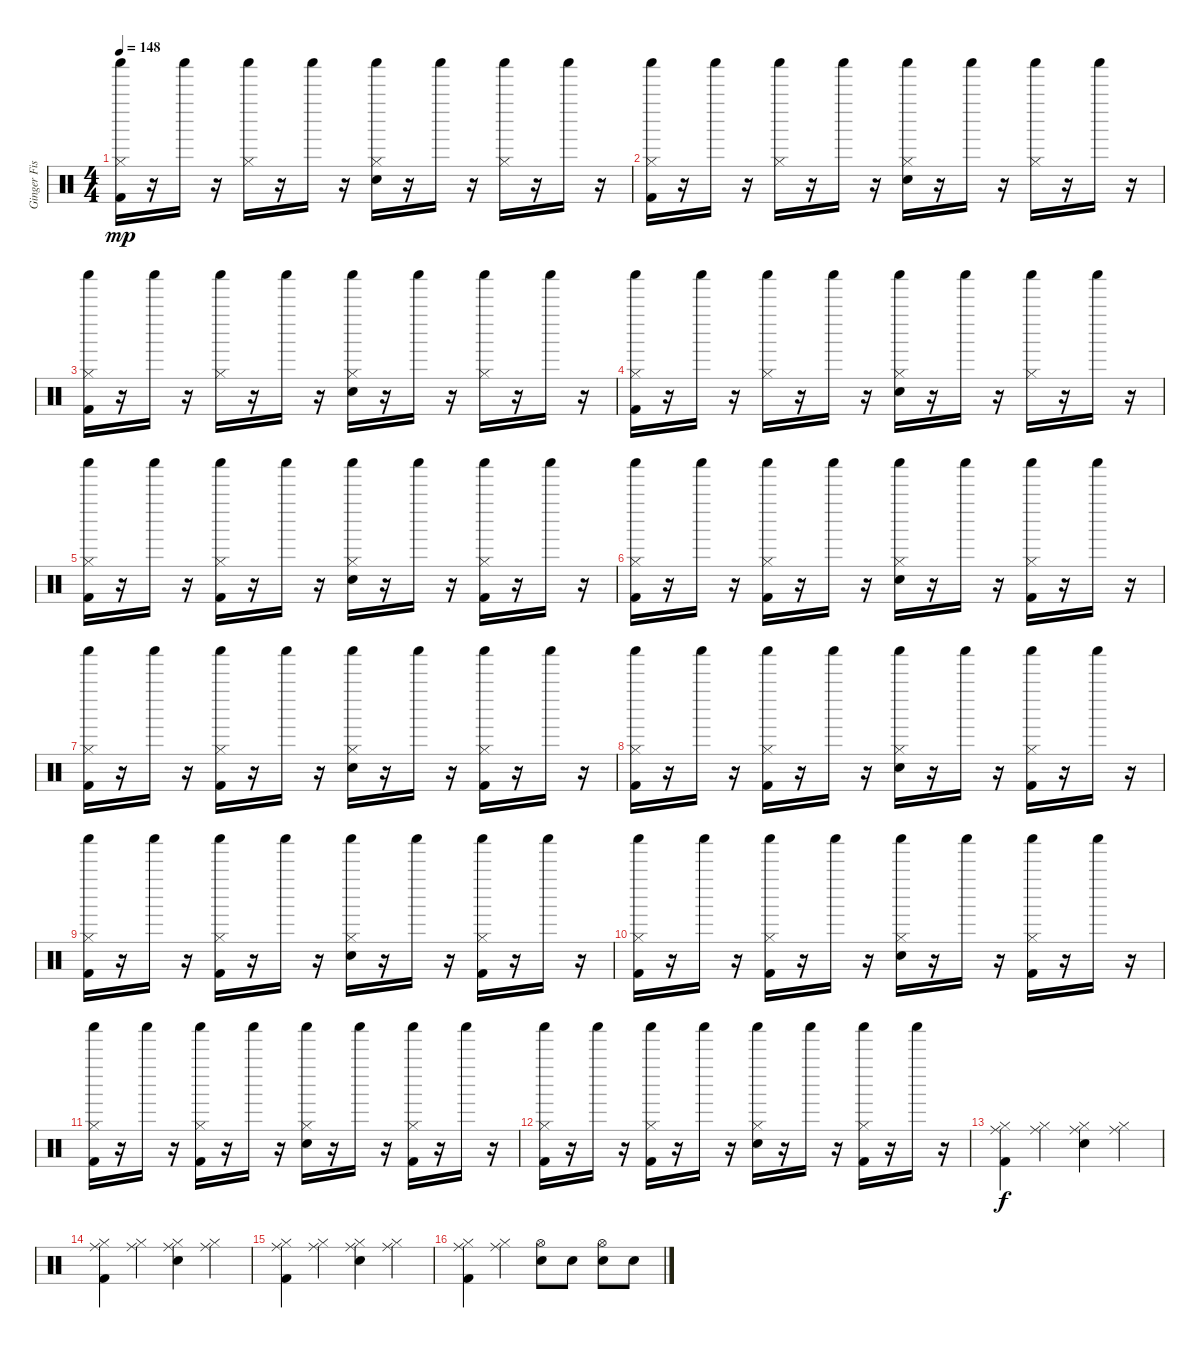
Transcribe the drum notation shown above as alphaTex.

\track ("Ginger Fish (Drums)" "Ginger Fis") {instrument percussion}
\staff {score}
\articulation defaults
\ts (4 4)
\tempo 148
\clef neutral
\ks c
("Hi-Hat (closed)" "Kick (hit) 2" "Shaker (hit)").16{dy mp} r.16 "Shaker (hit)".16 r.16 ("Hi-Hat (closed)" "Shaker (hit)").16 r.16 "Shaker (hit)".16 r.16 ("Hi-Hat (closed)" "Snare (hit) 2" "Shaker (hit)").16 r.16 "Shaker (hit)".16 r.16 ("Hi-Hat (closed)" "Shaker (hit)").16 r.16 "Shaker (hit)".16 r.16 |
("Hi-Hat (closed)" "Kick (hit) 2" "Shaker (hit)").16 r.16 "Shaker (hit)".16 r.16 ("Hi-Hat (closed)" "Shaker (hit)").16 r.16 "Shaker (hit)".16 r.16 ("Snare (hit) 2" "Hi-Hat (closed)" "Shaker (hit)").16 r.16 "Shaker (hit)".16 r.16 ("Hi-Hat (closed)" "Shaker (hit)").16 r.16 "Shaker (hit)".16 r.16 |
("Hi-Hat (closed)" "Kick (hit) 2" "Shaker (hit)").16 r.16 "Shaker (hit)".16 r.16 ("Hi-Hat (closed)" "Shaker (hit)").16 r.16 "Shaker (hit)".16 r.16 ("Hi-Hat (closed)" "Snare (hit) 2" "Shaker (hit)").16 r.16 "Shaker (hit)".16 r.16 ("Hi-Hat (closed)" "Shaker (hit)").16 r.16 "Shaker (hit)".16 r.16 |
("Hi-Hat (closed)" "Kick (hit) 2" "Shaker (hit)").16 r.16 "Shaker (hit)".16 r.16 ("Hi-Hat (closed)" "Shaker (hit)").16 r.16 "Shaker (hit)".16 r.16 ("Hi-Hat (closed)" "Snare (hit) 2" "Shaker (hit)").16 r.16 "Shaker (hit)".16 r.16 ("Hi-Hat (closed)" "Shaker (hit)").16 r.16 "Shaker (hit)".16 r.16 |
("Kick (hit) 2" "Hi-Hat (closed)" "Shaker (hit)").16 r.16 "Shaker (hit)".16 r.16 ("Kick (hit) 2" "Hi-Hat (closed)" "Shaker (hit)").16 r.16 "Shaker (hit)".16 r.16 ("Snare (hit) 2" "Hi-Hat (closed)" "Shaker (hit)").16 r.16 "Shaker (hit)".16 r.16 ("Kick (hit) 2" "Hi-Hat (closed)" "Shaker (hit)").16 r.16 "Shaker (hit)".16 r.16 |
("Shaker (hit)" "Kick (hit) 2" "Hi-Hat (closed)").16 r.16 "Shaker (hit)".16 r.16 ("Shaker (hit)" "Kick (hit) 2" "Hi-Hat (closed)").16 r.16 "Shaker (hit)".16 r.16 ("Shaker (hit)" "Snare (hit) 2" "Hi-Hat (closed)").16 r.16 "Shaker (hit)".16 r.16 ("Shaker (hit)" "Kick (hit) 2" "Hi-Hat (closed)").16 r.16 "Shaker (hit)".16 r.16 |
("Shaker (hit)" "Kick (hit) 2" "Hi-Hat (closed)").16 r.16 "Shaker (hit)".16 r.16 ("Shaker (hit)" "Kick (hit) 2" "Hi-Hat (closed)").16 r.16 "Shaker (hit)".16 r.16 ("Shaker (hit)" "Snare (hit) 2" "Hi-Hat (closed)").16 r.16 "Shaker (hit)".16 r.16 ("Shaker (hit)" "Kick (hit) 2" "Hi-Hat (closed)").16 r.16 "Shaker (hit)".16 r.16 |
("Kick (hit) 2" "Hi-Hat (closed)" "Shaker (hit)").16 r.16 "Shaker (hit)".16 r.16 ("Kick (hit) 2" "Hi-Hat (closed)" "Shaker (hit)").16 r.16 "Shaker (hit)".16 r.16 ("Snare (hit) 2" "Hi-Hat (closed)" "Shaker (hit)").16 r.16 "Shaker (hit)".16 r.16 ("Kick (hit) 2" "Hi-Hat (closed)" "Shaker (hit)").16 r.16 "Shaker (hit)".16 r.16 |
("Kick (hit) 2" "Hi-Hat (closed)" "Shaker (hit)").16 r.16 "Shaker (hit)".16 r.16 ("Kick (hit) 2" "Hi-Hat (closed)" "Shaker (hit)").16 r.16 "Shaker (hit)".16 r.16 ("Snare (hit) 2" "Hi-Hat (closed)" "Shaker (hit)").16 r.16 "Shaker (hit)".16 r.16 ("Kick (hit) 2" "Hi-Hat (closed)" "Shaker (hit)").16 r.16 "Shaker (hit)".16 r.16 |
("Shaker (hit)" "Kick (hit) 2" "Hi-Hat (closed)").16 r.16 "Shaker (hit)".16 r.16 ("Shaker (hit)" "Kick (hit) 2" "Hi-Hat (closed)").16 r.16 "Shaker (hit)".16 r.16 ("Shaker (hit)" "Snare (hit) 2" "Hi-Hat (closed)").16 r.16 "Shaker (hit)".16 r.16 ("Shaker (hit)" "Kick (hit) 2" "Hi-Hat (closed)").16 r.16 "Shaker (hit)".16 r.16 |
("Shaker (hit)" "Kick (hit) 2" "Hi-Hat (closed)").16 r.16 "Shaker (hit)".16 r.16 ("Shaker (hit)" "Kick (hit) 2" "Hi-Hat (closed)").16 r.16 "Shaker (hit)".16 r.16 ("Shaker (hit)" "Snare (hit) 2" "Hi-Hat (closed)").16 r.16 "Shaker (hit)".16 r.16 ("Shaker (hit)" "Kick (hit) 2" "Hi-Hat (closed)").16 r.16 "Shaker (hit)".16 r.16 |
("Kick (hit) 2" "Hi-Hat (closed)" "Shaker (hit)").16 r.16 "Shaker (hit)".16 r.16 ("Kick (hit) 2" "Hi-Hat (closed)" "Shaker (hit)").16 r.16 "Shaker (hit)".16 r.16 ("Snare (hit) 2" "Hi-Hat (closed)" "Shaker (hit)").16 r.16 "Shaker (hit)".16 r.16 ("Kick (hit) 2" "Hi-Hat (closed)" "Shaker (hit)").16 r.16 "Shaker (hit)".16 r.16 |
("Ride (middle)" "Hi-Hat (closed)" "Kick (hit) 2").4{dy f} ("Ride (middle)" "Hi-Hat (closed)").4 ("Ride (middle)" "Hi-Hat (closed)" "Snare (hit) 2").4 ("Ride (middle)" "Hi-Hat (closed)").4 |
("Ride (middle)" "Hi-Hat (closed)" "Kick (hit) 2").4 ("Ride (middle)" "Hi-Hat (closed)").4 ("Ride (middle)" "Hi-Hat (closed)" "Snare (hit) 2").4 ("Ride (middle)" "Hi-Hat (closed)").4 |
("Ride (middle)" "Hi-Hat (closed)" "Kick (hit) 2").4 ("Ride (middle)" "Hi-Hat (closed)").4 ("Ride (middle)" "Hi-Hat (closed)" "Snare (hit) 2").4 ("Ride (middle)" "Hi-Hat (closed)").4 |
("Ride (middle)" "Hi-Hat (closed)" "Kick (hit) 2").4 ("Ride (middle)" "Hi-Hat (closed)").4 ("Hi-Hat (open)" "Snare (hit) 2").8 "Snare (hit) 2".8 ("Hi-Hat (open)" "Snare (hit) 2").8 "Snare (hit) 2".8
